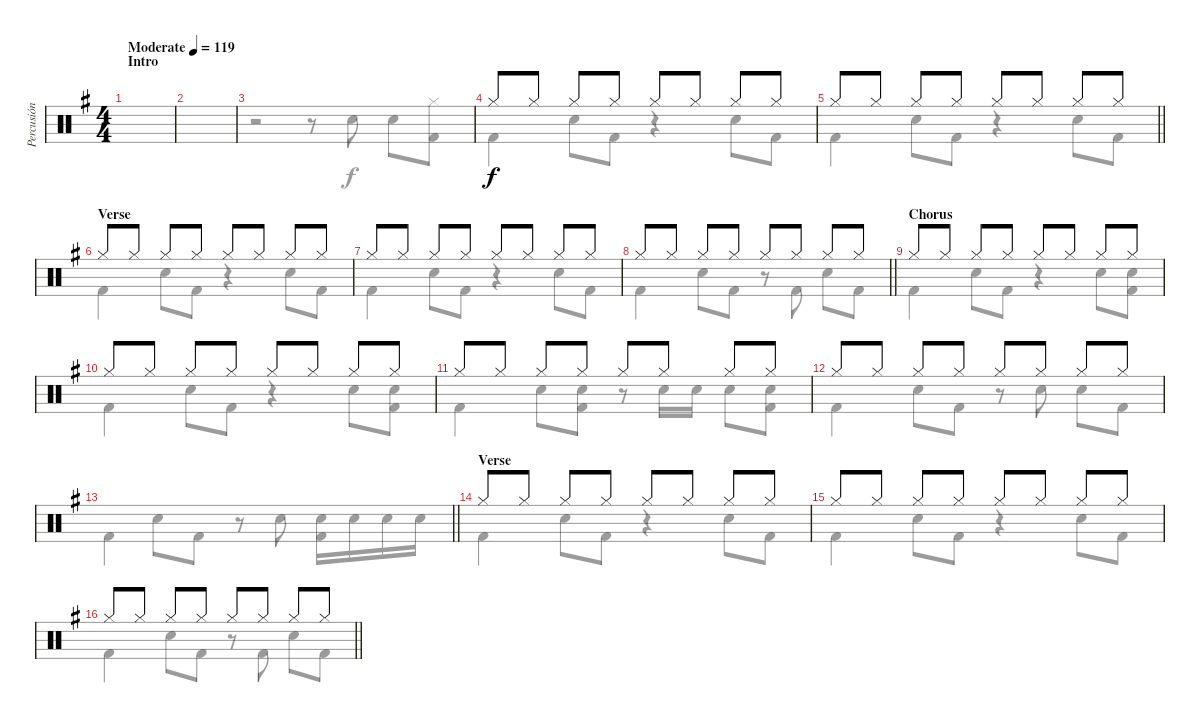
\track ("Percusión" "Percusión") {instrument percussion}
\staff {score}
\articulation defaults
\voice
\ts (4 4)
\section ("" "Intro")
\tempo (119 "Moderate")
\clef neutral
\ks g
|
|
|
"Hi-Hat (closed)".8 "Hi-Hat (closed)".8 "Hi-Hat (closed)".8 "Hi-Hat (closed)".8 "Hi-Hat (closed)".8 "Hi-Hat (closed)".8 "Hi-Hat (closed)".8 "Hi-Hat (closed)".8 |
\barLineRight lightlight "Hi-Hat (closed)".8 "Hi-Hat (closed)".8 "Hi-Hat (closed)".8 "Hi-Hat (closed)".8 "Hi-Hat (closed)".8 "Hi-Hat (closed)".8 "Hi-Hat (closed)".8 "Hi-Hat (closed)".8
|
\section ("" "Verse")
"Hi-Hat (closed)".8 "Hi-Hat (closed)".8 "Hi-Hat (closed)".8 "Hi-Hat (closed)".8 "Hi-Hat (closed)".8 "Hi-Hat (closed)".8 "Hi-Hat (closed)".8 "Hi-Hat (closed)".8 |
"Hi-Hat (closed)".8 "Hi-Hat (closed)".8 "Hi-Hat (closed)".8 "Hi-Hat (closed)".8 "Hi-Hat (closed)".8 "Hi-Hat (closed)".8 "Hi-Hat (closed)".8 "Hi-Hat (closed)".8 |
\barLineRight lightlight "Hi-Hat (closed)".8 "Hi-Hat (closed)".8 "Hi-Hat (closed)".8 "Hi-Hat (closed)".8 "Hi-Hat (closed)".8 "Hi-Hat (closed)".8 "Hi-Hat (closed)".8 "Hi-Hat (closed)".8
|
\section ("" "Chorus")
"Hi-Hat (closed)".8 "Hi-Hat (closed)".8 "Hi-Hat (closed)".8 "Hi-Hat (closed)".8 "Hi-Hat (closed)".8 "Hi-Hat (closed)".8 "Hi-Hat (closed)".8 "Hi-Hat (closed)".8 |
"Hi-Hat (closed)".8 "Hi-Hat (closed)".8 "Hi-Hat (closed)".8 "Hi-Hat (closed)".8 "Hi-Hat (closed)".8 "Hi-Hat (closed)".8 "Hi-Hat (closed)".8 "Hi-Hat (closed)".8 |
"Hi-Hat (closed)".8 "Hi-Hat (closed)".8 "Hi-Hat (closed)".8 "Hi-Hat (closed)".8 "Hi-Hat (closed)".8 "Hi-Hat (closed)".8 "Hi-Hat (closed)".8 "Hi-Hat (closed)".8 |
"Hi-Hat (closed)".8 "Hi-Hat (closed)".8 "Hi-Hat (closed)".8 "Hi-Hat (closed)".8 "Hi-Hat (closed)".8 "Hi-Hat (closed)".8 "Hi-Hat (closed)".8 "Hi-Hat (closed)".8 |
\barLineRight lightlight
|
\section ("" "Verse")
"Hi-Hat (closed)".8 "Hi-Hat (closed)".8 "Hi-Hat (closed)".8 "Hi-Hat (closed)".8 "Hi-Hat (closed)".8 "Hi-Hat (closed)".8 "Hi-Hat (closed)".8 "Hi-Hat (closed)".8 |
"Hi-Hat (closed)".8 "Hi-Hat (closed)".8 "Hi-Hat (closed)".8 "Hi-Hat (closed)".8 "Hi-Hat (closed)".8 "Hi-Hat (closed)".8 "Hi-Hat (closed)".8 "Hi-Hat (closed)".8 |
\barLineRight lightlight "Hi-Hat (closed)".8 "Hi-Hat (closed)".8 "Hi-Hat (closed)".8 "Hi-Hat (closed)".8 "Hi-Hat (closed)".8 "Hi-Hat (closed)".8 "Hi-Hat (closed)".8 "Hi-Hat (closed)".8
\voice
\clef neutral
\ottava regular
\simile none
\ks g
|
|
r.2 r.8 "Electric Snare (hit)".8 "Electric Snare (hit)".8 ("Hi-Hat (closed)" "Kick (hit) 2").8 |
"Kick (hit) 2".4 "Electric Snare (hit)".8 "Kick (hit) 2".8 r.4 "Electric Snare (hit)".8 "Kick (hit) 2".8 |
\barLineRight lightlight "Kick (hit) 2".4 "Electric Snare (hit)".8 "Kick (hit) 2".8
r.4 "Electric Snare (hit)".8 "Kick (hit) 2".8 |
"Kick (hit) 2".4 "Electric Snare (hit)".8 "Kick (hit) 2".8 r.4 "Electric Snare (hit)".8 "Kick (hit) 2".8 |
"Kick (hit) 2".4 "Electric Snare (hit)".8 "Kick (hit) 2".8 r.4 "Electric Snare (hit)".8 "Kick (hit) 2".8 |
\barLineRight lightlight "Kick (hit) 2".4 "Electric Snare (hit)".8 "Kick (hit) 2".8
r.8 "Kick (hit) 2".8 "Electric Snare (hit)".8 "Kick (hit) 2".8 |
"Kick (hit) 2".4 "Electric Snare (hit)".8 "Kick (hit) 2".8 r.4 "Electric Snare (hit)".8 ("Electric Snare (hit)" "Kick (hit) 2").8 |
"Kick (hit) 2".4 "Electric Snare (hit)".8 "Kick (hit) 2".8 r.4 "Electric Snare (hit)".8 ("Electric Snare (hit)" "Kick (hit) 2").8 |
"Kick (hit) 2".4 "Electric Snare (hit)".8 ("Electric Snare (hit)" "Kick (hit) 2").8 r.8 "Electric Snare (hit)".16 "Electric Snare (hit)".16 "Electric Snare (hit)".8 ("Electric Snare (hit)" "Kick (hit) 2").8 |
"Kick (hit) 2".4 "Electric Snare (hit)".8 "Kick (hit) 2".8 r.8 "Electric Snare (hit)".8 "Electric Snare (hit)".8 "Kick (hit) 2".8 |
\barLineRight lightlight "Kick (hit) 2".4 "Electric Snare (hit)".8 "Kick (hit) 2".8
r.8 "Electric Snare (hit)".8 ("Electric Snare (hit)" "Kick (hit) 2").16 "Electric Snare (hit)".16 "Electric Snare (hit)".16 "Electric Snare (hit)".16 |
"Kick (hit) 2".4 "Electric Snare (hit)".8 "Kick (hit) 2".8 r.4 "Electric Snare (hit)".8 "Kick (hit) 2".8 |
"Kick (hit) 2".4 "Electric Snare (hit)".8 "Kick (hit) 2".8 r.4 "Electric Snare (hit)".8 "Kick (hit) 2".8 |
\barLineRight lightlight "Kick (hit) 2".4 "Electric Snare (hit)".8 "Kick (hit) 2".8
r.8 "Kick (hit) 2".8 "Electric Snare (hit)".8 "Kick (hit) 2".8
